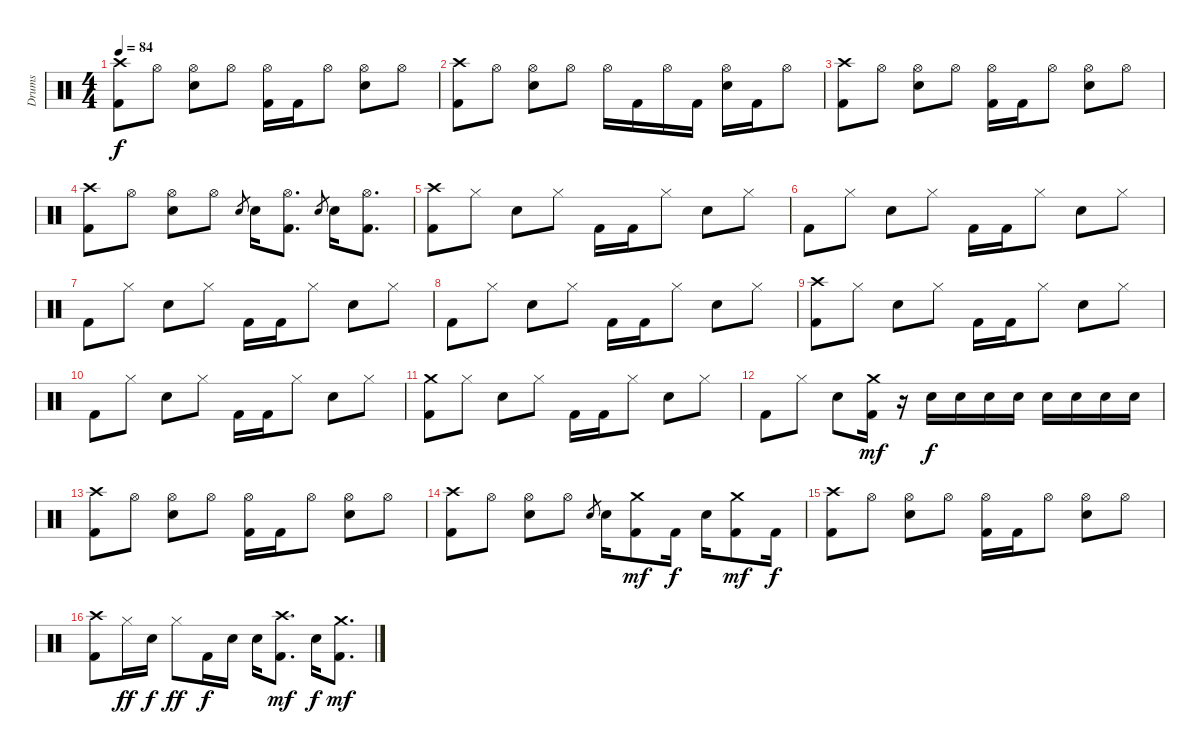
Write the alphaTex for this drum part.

\track ("Drums" "Drums") {instrument percussion}
\staff {score}
\articulation defaults
\ts (4 4)
\tempo 84
\clef neutral
\ks c
("Kick (hit) 2" "Crash high (hit)").8{dy f} "Hi-Hat (open)".8 ("Snare (hit) 2" "Hi-Hat (open)").8 "Hi-Hat (open)".8 ("Kick (hit) 2" "Hi-Hat (open)").16 "Kick (hit) 2".16 "Hi-Hat (open)".8 ("Snare (hit) 2" "Hi-Hat (open)").8 "Hi-Hat (open)".8 |
("Kick (hit) 2" "Crash high (hit)").8 "Hi-Hat (open)".8 ("Snare (hit) 2" "Hi-Hat (open)").8 "Hi-Hat (open)".8 "Hi-Hat (open)".16 "Kick (hit) 2".16 "Hi-Hat (open)".16 "Kick (hit) 2".16 ("Snare (hit) 2" "Hi-Hat (open)").16 "Kick (hit) 2".16 "Hi-Hat (open)".8 |
("Kick (hit) 2" "Crash high (hit)").8 "Hi-Hat (open)".8 ("Snare (hit) 2" "Hi-Hat (open)").8 "Hi-Hat (open)".8 ("Kick (hit) 2" "Hi-Hat (open)").16 "Kick (hit) 2".16 "Hi-Hat (open)".8 ("Snare (hit) 2" "Hi-Hat (open)").8 "Hi-Hat (open)".8 |
("Kick (hit) 2" "Crash high (hit)").8 "Hi-Hat (open)".8 ("Snare (hit) 2" "Hi-Hat (open)").8 "Hi-Hat (open)".8 "Snare (hit) 2".8{gr} "Snare (hit) 2".16 ("Kick (hit) 2" "Hi-Hat (open)").8{d} "Snare (hit) 2".8{gr} "Snare (hit) 2".16 ("Kick (hit) 2" "Hi-Hat (open)").8{d} |
("Kick (hit) 2" "Crash high (hit)").8 "Hi-Hat (closed)".8 "Snare (hit) 2".8 "Hi-Hat (closed)".8 "Kick (hit) 2".16 "Kick (hit) 2".16 "Hi-Hat (closed)".8 "Snare (hit) 2".8 "Hi-Hat (closed)".8 |
"Kick (hit) 2".8 "Hi-Hat (closed)".8 "Snare (hit) 2".8 "Hi-Hat (closed)".8 "Kick (hit) 2".16 "Kick (hit) 2".16 "Hi-Hat (closed)".8 "Snare (hit) 2".8 "Hi-Hat (closed)".8 |
"Kick (hit) 2".8 "Hi-Hat (closed)".8 "Snare (hit) 2".8 "Hi-Hat (closed)".8 "Kick (hit) 2".16 "Kick (hit) 2".16 "Hi-Hat (closed)".8 "Snare (hit) 2".8 "Hi-Hat (closed)".8 |
"Kick (hit) 2".8 "Hi-Hat (closed)".8 "Snare (hit) 2".8 "Hi-Hat (closed)".8 "Kick (hit) 2".16 "Kick (hit) 2".16 "Hi-Hat (closed)".8 "Snare (hit) 2".8 "Hi-Hat (closed)".8 |
("Kick (hit) 2" "Crash high (hit)").8 "Hi-Hat (closed)".8 "Snare (hit) 2".8 "Hi-Hat (closed)".8 "Kick (hit) 2".16 "Kick (hit) 2".16 "Hi-Hat (closed)".8 "Snare (hit) 2".8 "Hi-Hat (closed)".8 |
"Kick (hit) 2".8 "Hi-Hat (closed)".8 "Snare (hit) 2".8 "Hi-Hat (closed)".8 "Kick (hit) 2".16 "Kick (hit) 2".16 "Hi-Hat (closed)".8 "Snare (hit) 2".8 "Hi-Hat (closed)".8 |
("Kick (hit) 2" "Crash medium (hit)").8 "Hi-Hat (closed)".8 "Snare (hit) 2".8 "Hi-Hat (closed)".8 "Kick (hit) 2".16 "Kick (hit) 2".16 "Hi-Hat (closed)".8 "Snare (hit) 2".8 "Hi-Hat (closed)".8 |
"Kick (hit) 2".8 "Hi-Hat (closed)".8 "Snare (hit) 2".8 ("Kick (hit) 2" "Crash medium (hit)").16{dy mf} r.16{volume 5} "Snare (hit) 2".16{dy f volume 13} "Snare (hit) 2".16 "Snare (hit) 2".16 "Snare (hit) 2".16 "Snare (hit) 2".16 "Snare (hit) 2".16 "Snare (hit) 2".16 "Snare (hit) 2".16 |
("Kick (hit) 2" "Crash high (hit)").8 "Hi-Hat (open)".8 ("Snare (hit) 2" "Hi-Hat (open)").8 "Hi-Hat (open)".8 ("Kick (hit) 2" "Hi-Hat (open)").16 "Kick (hit) 2".16 "Hi-Hat (open)".8 ("Snare (hit) 2" "Hi-Hat (open)").8 "Hi-Hat (open)".8 |
("Kick (hit) 2" "Crash high (hit)").8 "Hi-Hat (open)".8 ("Snare (hit) 2" "Hi-Hat (open)").8 "Hi-Hat (open)".8 "Snare (hit) 2".8{gr} "Snare (hit) 2".16 ("Kick (hit) 2" "Crash medium (hit)").8{dy mf} "Kick (hit) 2".16{dy f} "Snare (hit) 2".16 ("Kick (hit) 2" "Crash medium (hit)").8{dy mf} "Kick (hit) 2".16{dy f} |
("Kick (hit) 2" "Crash high (hit)").8 "Hi-Hat (open)".8 ("Snare (hit) 2" "Hi-Hat (open)").8 "Hi-Hat (open)".8 ("Kick (hit) 2" "Hi-Hat (open)").16 "Kick (hit) 2".16 "Hi-Hat (open)".8 ("Snare (hit) 2" "Hi-Hat (open)").8 "Hi-Hat (open)".8 |
("Kick (hit) 2" "Crash high (hit)").8 "Hi-Hat (closed)".16{dy ff} "Snare (hit) 2".16{dy f} "Hi-Hat (closed)".8{dy ff} "Kick (hit) 2".16{dy f} "Snare (hit) 2".16 "Snare (hit) 2".16 ("Kick (hit) 2" "Crash high (hit)").8{d dy mf} "Snare (hit) 2".16{dy f} ("Kick (hit) 2" "Crash medium (hit)").8{d dy mf}
